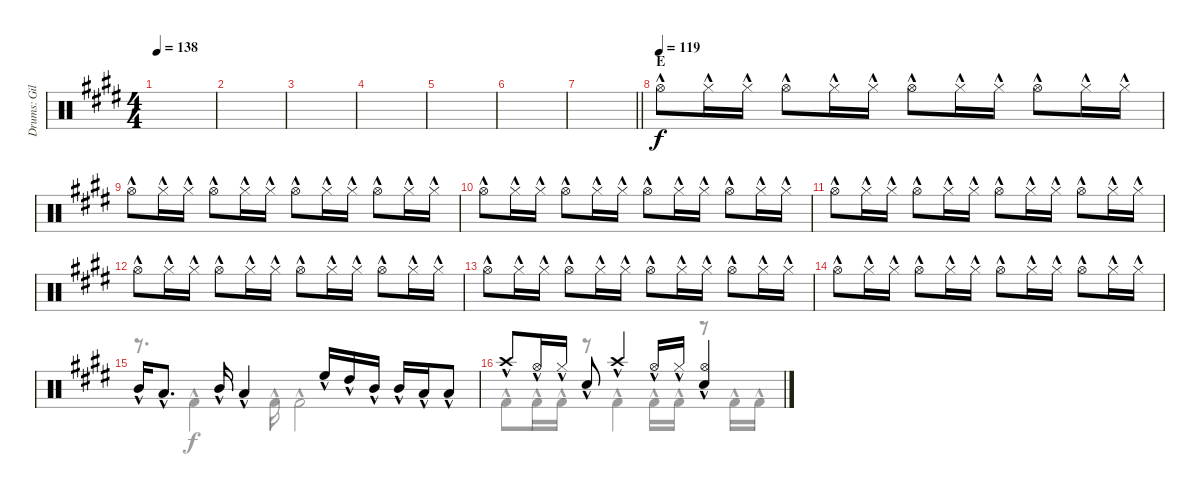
\track ("Drums: Gil" "Drums: Gil") {instrument percussion}
\staff {score}
\articulation defaults
\voice
\ts (4 4)
\tempo 138
\clef neutral
\ks e
|
|
|
|
|
|
\barLineRight lightlight
|
\section ("" "E")
\tempo (119)
"Hi-Hat (open)"{hac}.8 "Hi-Hat (closed)"{hac}.16 "Hi-Hat (closed)"{hac}.16 "Hi-Hat (open)"{hac}.8 "Hi-Hat (closed)"{hac}.16 "Hi-Hat (closed)"{hac}.16 "Hi-Hat (open)"{hac}.8 "Hi-Hat (closed)"{hac}.16 "Hi-Hat (closed)"{hac}.16 "Hi-Hat (open)"{hac}.8 "Hi-Hat (closed)"{hac}.16 "Hi-Hat (closed)"{hac}.16 |
"Hi-Hat (open)"{hac}.8 "Hi-Hat (closed)"{hac}.16 "Hi-Hat (closed)"{hac}.16 "Hi-Hat (open)"{hac}.8 "Hi-Hat (closed)"{hac}.16 "Hi-Hat (closed)"{hac}.16 "Hi-Hat (open)"{hac}.8 "Hi-Hat (closed)"{hac}.16 "Hi-Hat (closed)"{hac}.16 "Hi-Hat (open)"{hac}.8 "Hi-Hat (closed)"{hac}.16 "Hi-Hat (closed)"{hac}.16 |
"Hi-Hat (open)"{hac}.8 "Hi-Hat (closed)"{hac}.16 "Hi-Hat (closed)"{hac}.16 "Hi-Hat (open)"{hac}.8 "Hi-Hat (closed)"{hac}.16 "Hi-Hat (closed)"{hac}.16 "Hi-Hat (open)"{hac}.8 "Hi-Hat (closed)"{hac}.16 "Hi-Hat (closed)"{hac}.16 "Hi-Hat (open)"{hac}.8 "Hi-Hat (closed)"{hac}.16 "Hi-Hat (closed)"{hac}.16 |
"Hi-Hat (open)"{hac}.8 "Hi-Hat (closed)"{hac}.16 "Hi-Hat (closed)"{hac}.16 "Hi-Hat (open)"{hac}.8 "Hi-Hat (closed)"{hac}.16 "Hi-Hat (closed)"{hac}.16 "Hi-Hat (open)"{hac}.8 "Hi-Hat (closed)"{hac}.16 "Hi-Hat (closed)"{hac}.16 "Hi-Hat (open)"{hac}.8 "Hi-Hat (closed)"{hac}.16 "Hi-Hat (closed)"{hac}.16 |
"Hi-Hat (open)"{hac}.8 "Hi-Hat (closed)"{hac}.16 "Hi-Hat (closed)"{hac}.16 "Hi-Hat (open)"{hac}.8 "Hi-Hat (closed)"{hac}.16 "Hi-Hat (closed)"{hac}.16 "Hi-Hat (open)"{hac}.8 "Hi-Hat (closed)"{hac}.16 "Hi-Hat (closed)"{hac}.16 "Hi-Hat (open)"{hac}.8 "Hi-Hat (closed)"{hac}.16 "Hi-Hat (closed)"{hac}.16 |
"Hi-Hat (open)"{hac}.8 "Hi-Hat (closed)"{hac}.16 "Hi-Hat (closed)"{hac}.16 "Hi-Hat (open)"{hac}.8 "Hi-Hat (closed)"{hac}.16 "Hi-Hat (closed)"{hac}.16 "Hi-Hat (open)"{hac}.8 "Hi-Hat (closed)"{hac}.16 "Hi-Hat (closed)"{hac}.16 "Hi-Hat (open)"{hac}.8 "Hi-Hat (closed)"{hac}.16 "Hi-Hat (closed)"{hac}.16 |
"Hi-Hat (open)"{hac}.8 "Hi-Hat (closed)"{hac}.16 "Hi-Hat (closed)"{hac}.16 "Hi-Hat (open)"{hac}.8 "Hi-Hat (closed)"{hac}.16 "Hi-Hat (closed)"{hac}.16 "Hi-Hat (open)"{hac}.8 "Hi-Hat (closed)"{hac}.16 "Hi-Hat (closed)"{hac}.16 "Hi-Hat (open)"{hac}.8 "Hi-Hat (closed)"{hac}.16 "Hi-Hat (closed)"{hac}.16 |
"Mid Tom (hit)"{hac}.16 "Low Tom (hit)"{hac}.8{d} "Mid Tom (hit)"{hac}.16 "Low Tom (hit)"{hac}.4 "High Floor Tom (hit)"{hac}.16 "High Tom (hit)"{hac}.16 "Mid Tom (hit)"{hac}.16 "Mid Tom (hit)"{hac}.16 "Low Tom (hit)"{hac}.16 "Low Tom (hit)"{hac}.8 |
"Crash high (hit)"{hac}.8 "Hi-Hat (open)"{hac}.16 "Hi-Hat (closed)"{hac}.16 "Snare (hit) 2"{hac}.8 "Crash high (hit)"{hac}.4 "Hi-Hat (open)"{hac}.16 "Hi-Hat (closed)"{hac}.16 ("Hi-Hat (open)"{hac} "Snare (hit) 2"{hac}).4
\voice
\clef neutral
\ottava regular
\simile none
\ks e
|
|
|
|
|
|
\barLineRight lightlight
|
|
|
|
|
|
|
|
r.8{d} "Kick (hit) 2"{hac}.4 "Kick (hit) 2"{hac}.16 "Kick (hit) 2"{hac}.2 |
"Kick (hit) 2"{hac}.8 "Kick (hit) 2"{hac}.16 "Kick (hit) 2"{hac}.16 r.8 "Kick (hit) 2"{hac}.4 "Kick (hit) 2"{hac}.16 "Kick (hit) 2"{hac}.16 r.8 "Kick (hit) 2"{hac}.16 "Kick (hit) 2"{hac}.16
